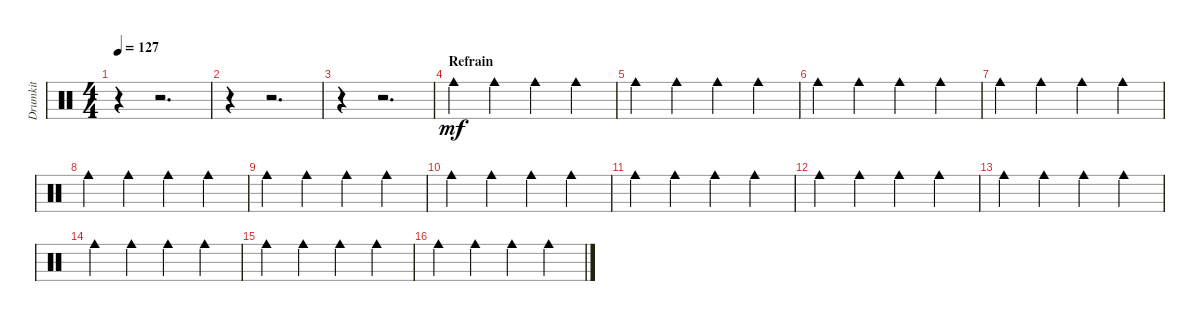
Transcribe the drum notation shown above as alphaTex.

\track ("Drumkit" "Drumkit") {instrument percussion}
\staff {score}
\articulation defaults
\ts (4 4)
\tempo 127
\clef neutral
\ks c
r.4{dy mf} r.2{d} |
r.4 r.2{d} |
r.4 r.2{d} |
\section ("" "Refrain")
"Cowbell medium (hit)".4 "Cowbell medium (hit)".4 "Cowbell medium (hit)".4 "Cowbell medium (hit)".4 |
"Cowbell medium (hit)".4 "Cowbell medium (hit)".4 "Cowbell medium (hit)".4 "Cowbell medium (hit)".4 |
"Cowbell medium (hit)".4 "Cowbell medium (hit)".4 "Cowbell medium (hit)".4 "Cowbell medium (hit)".4 |
"Cowbell medium (hit)".4 "Cowbell medium (hit)".4 "Cowbell medium (hit)".4 "Cowbell medium (hit)".4 |
"Cowbell medium (hit)".4 "Cowbell medium (hit)".4 "Cowbell medium (hit)".4 "Cowbell medium (hit)".4 |
"Cowbell medium (hit)".4 "Cowbell medium (hit)".4 "Cowbell medium (hit)".4 "Cowbell medium (hit)".4 |
"Cowbell medium (hit)".4 "Cowbell medium (hit)".4 "Cowbell medium (hit)".4 "Cowbell medium (hit)".4 |
"Cowbell medium (hit)".4 "Cowbell medium (hit)".4 "Cowbell medium (hit)".4 "Cowbell medium (hit)".4 |
"Cowbell medium (hit)".4 "Cowbell medium (hit)".4 "Cowbell medium (hit)".4 "Cowbell medium (hit)".4 |
"Cowbell medium (hit)".4 "Cowbell medium (hit)".4 "Cowbell medium (hit)".4 "Cowbell medium (hit)".4 |
"Cowbell medium (hit)".4 "Cowbell medium (hit)".4 "Cowbell medium (hit)".4 "Cowbell medium (hit)".4 |
"Cowbell medium (hit)".4 "Cowbell medium (hit)".4 "Cowbell medium (hit)".4 "Cowbell medium (hit)".4 |
"Cowbell medium (hit)".4 "Cowbell medium (hit)".4 "Cowbell medium (hit)".4 "Cowbell medium (hit)".4
